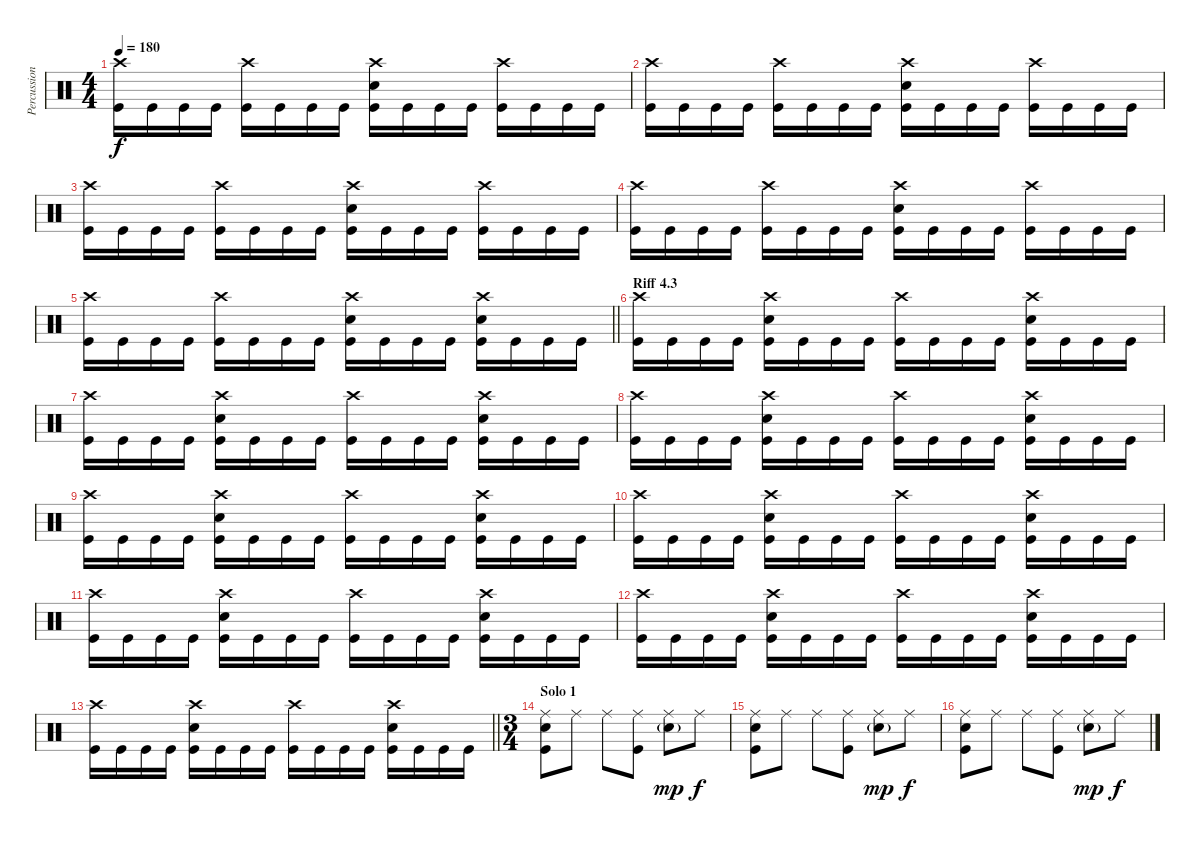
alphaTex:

\track ("Percussion" "Percussion") {instrument percussion}
\staff {score}
\articulation defaults
\ts (4 4)
\tempo 180
\clef neutral
\ks c
("Crash high (hit)" "Kick (hit)").16{dy f} "Kick (hit)".16 "Kick (hit)".16 "Kick (hit)".16 ("Crash high (hit)" "Kick (hit)").16 "Kick (hit)".16 "Kick (hit)".16 "Kick (hit)".16 ("Crash high (hit)" "Snare (hit) 2" "Kick (hit)").16 "Kick (hit)".16 "Kick (hit)".16 "Kick (hit)".16 ("Crash high (hit)" "Kick (hit)").16 "Kick (hit)".16 "Kick (hit)".16 "Kick (hit)".16 |
("Crash high (hit)" "Kick (hit)").16 "Kick (hit)".16 "Kick (hit)".16 "Kick (hit)".16 ("Crash high (hit)" "Kick (hit)").16 "Kick (hit)".16 "Kick (hit)".16 "Kick (hit)".16 ("Crash high (hit)" "Snare (hit) 2" "Kick (hit)").16 "Kick (hit)".16 "Kick (hit)".16 "Kick (hit)".16 ("Crash high (hit)" "Kick (hit)").16 "Kick (hit)".16 "Kick (hit)".16 "Kick (hit)".16 |
("Crash high (hit)" "Kick (hit)").16 "Kick (hit)".16 "Kick (hit)".16 "Kick (hit)".16 ("Crash high (hit)" "Kick (hit)").16 "Kick (hit)".16 "Kick (hit)".16 "Kick (hit)".16 ("Crash high (hit)" "Snare (hit) 2" "Kick (hit)").16 "Kick (hit)".16 "Kick (hit)".16 "Kick (hit)".16 ("Crash high (hit)" "Kick (hit)").16 "Kick (hit)".16 "Kick (hit)".16 "Kick (hit)".16 |
("Crash high (hit)" "Kick (hit)").16 "Kick (hit)".16 "Kick (hit)".16 "Kick (hit)".16 ("Crash high (hit)" "Kick (hit)").16 "Kick (hit)".16 "Kick (hit)".16 "Kick (hit)".16 ("Crash high (hit)" "Snare (hit) 2" "Kick (hit)").16 "Kick (hit)".16 "Kick (hit)".16 "Kick (hit)".16 ("Crash high (hit)" "Kick (hit)").16 "Kick (hit)".16 "Kick (hit)".16 "Kick (hit)".16 |
\barLineRight lightlight
("Crash high (hit)" "Kick (hit)").16 "Kick (hit)".16 "Kick (hit)".16 "Kick (hit)".16 ("Crash high (hit)" "Kick (hit)").16 "Kick (hit)".16 "Kick (hit)".16 "Kick (hit)".16 ("Crash high (hit)" "Snare (hit) 2" "Kick (hit)").16 "Kick (hit)".16 "Kick (hit)".16 "Kick (hit)".16 ("Snare (hit) 2" "Crash high (hit)" "Kick (hit)").16 "Kick (hit)".16 "Kick (hit)".16 "Kick (hit)".16 |
\section ("" "Riff 4.3")
("Crash high (hit)" "Kick (hit)").16 "Kick (hit)".16 "Kick (hit)".16 "Kick (hit)".16 ("Crash high (hit)" "Snare (hit) 2" "Kick (hit)").16 "Kick (hit)".16 "Kick (hit)".16 "Kick (hit)".16 ("Crash high (hit)" "Kick (hit)").16 "Kick (hit)".16 "Kick (hit)".16 "Kick (hit)".16 ("Snare (hit) 2" "Crash high (hit)" "Kick (hit)").16 "Kick (hit)".16 "Kick (hit)".16 "Kick (hit)".16 |
("Crash high (hit)" "Kick (hit)").16 "Kick (hit)".16 "Kick (hit)".16 "Kick (hit)".16 ("Crash high (hit)" "Snare (hit) 2" "Kick (hit)").16 "Kick (hit)".16 "Kick (hit)".16 "Kick (hit)".16 ("Crash high (hit)" "Kick (hit)").16 "Kick (hit)".16 "Kick (hit)".16 "Kick (hit)".16 ("Snare (hit) 2" "Crash high (hit)" "Kick (hit)").16 "Kick (hit)".16 "Kick (hit)".16 "Kick (hit)".16 |
("Crash high (hit)" "Kick (hit)").16 "Kick (hit)".16 "Kick (hit)".16 "Kick (hit)".16 ("Crash high (hit)" "Snare (hit) 2" "Kick (hit)").16 "Kick (hit)".16 "Kick (hit)".16 "Kick (hit)".16 ("Crash high (hit)" "Kick (hit)").16 "Kick (hit)".16 "Kick (hit)".16 "Kick (hit)".16 ("Snare (hit) 2" "Crash high (hit)" "Kick (hit)").16 "Kick (hit)".16 "Kick (hit)".16 "Kick (hit)".16 |
("Crash high (hit)" "Kick (hit)").16 "Kick (hit)".16 "Kick (hit)".16 "Kick (hit)".16 ("Crash high (hit)" "Snare (hit) 2" "Kick (hit)").16 "Kick (hit)".16 "Kick (hit)".16 "Kick (hit)".16 ("Crash high (hit)" "Kick (hit)").16 "Kick (hit)".16 "Kick (hit)".16 "Kick (hit)".16 ("Snare (hit) 2" "Crash high (hit)" "Kick (hit)").16 "Kick (hit)".16 "Kick (hit)".16 "Kick (hit)".16 |
("Crash high (hit)" "Kick (hit)").16 "Kick (hit)".16 "Kick (hit)".16 "Kick (hit)".16 ("Crash high (hit)" "Snare (hit) 2" "Kick (hit)").16 "Kick (hit)".16 "Kick (hit)".16 "Kick (hit)".16 ("Crash high (hit)" "Kick (hit)").16 "Kick (hit)".16 "Kick (hit)".16 "Kick (hit)".16 ("Snare (hit) 2" "Crash high (hit)" "Kick (hit)").16 "Kick (hit)".16 "Kick (hit)".16 "Kick (hit)".16 |
("Crash high (hit)" "Kick (hit)").16 "Kick (hit)".16 "Kick (hit)".16 "Kick (hit)".16 ("Crash high (hit)" "Snare (hit) 2" "Kick (hit)").16 "Kick (hit)".16 "Kick (hit)".16 "Kick (hit)".16 ("Crash high (hit)" "Kick (hit)").16 "Kick (hit)".16 "Kick (hit)".16 "Kick (hit)".16 ("Snare (hit) 2" "Crash high (hit)" "Kick (hit)").16 "Kick (hit)".16 "Kick (hit)".16 "Kick (hit)".16 |
("Crash high (hit)" "Kick (hit)").16 "Kick (hit)".16 "Kick (hit)".16 "Kick (hit)".16 ("Crash high (hit)" "Snare (hit) 2" "Kick (hit)").16 "Kick (hit)".16 "Kick (hit)".16 "Kick (hit)".16 ("Crash high (hit)" "Kick (hit)").16 "Kick (hit)".16 "Kick (hit)".16 "Kick (hit)".16 ("Snare (hit) 2" "Crash high (hit)" "Kick (hit)").16 "Kick (hit)".16 "Kick (hit)".16 "Kick (hit)".16 |
\barLineRight lightlight
("Crash high (hit)" "Kick (hit)").16 "Kick (hit)".16 "Kick (hit)".16 "Kick (hit)".16 ("Crash high (hit)" "Snare (hit) 2" "Kick (hit)").16 "Kick (hit)".16 "Kick (hit)".16 "Kick (hit)".16 ("Crash high (hit)" "Kick (hit)").16 "Kick (hit)".16 "Kick (hit)".16 "Kick (hit)".16 ("Snare (hit) 2" "Crash high (hit)" "Kick (hit)").16 "Kick (hit)".16 "Kick (hit)".16 "Kick (hit)".16 |
\ts (3 4)
\section ("" "Solo 1")
("Snare (hit) 2" "Ride (middle)" "Kick (hit)").8 "Ride (middle)".8 "Ride (middle)".8 ("Ride (middle)" "Kick (hit)").8 ("Ride (middle)" "Snare (hit) 2"{g}).8{dy mp} "Ride (middle)".8{dy f} |
("Snare (hit) 2" "Ride (middle)" "Kick (hit)").8 "Ride (middle)".8 "Ride (middle)".8 ("Ride (middle)" "Kick (hit)").8 ("Ride (middle)" "Snare (hit) 2"{g}).8{dy mp} "Ride (middle)".8{dy f} |
("Snare (hit) 2" "Ride (middle)" "Kick (hit)").8 "Ride (middle)".8 "Ride (middle)".8 ("Ride (middle)" "Kick (hit)").8 ("Ride (middle)" "Snare (hit) 2"{g}).8{dy mp} "Ride (middle)".8{dy f}
